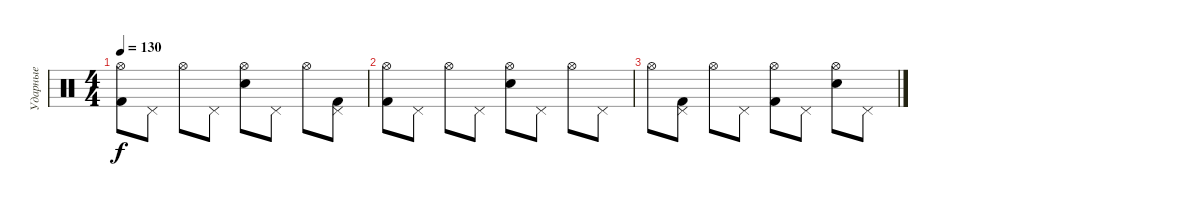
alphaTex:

\track ("Ударные" "Ударные") {instrument percussion}
\staff
\articulation defaults
\ts (4 4)
\tempo 130
\clef neutral
\ks c
("Kick (hit) 2" "Hi-Hat (open)").8{dy f} "Pedal Hi-Hat (hit)".8 "Hi-Hat (open)".8 "Pedal Hi-Hat (hit)".8 ("Snare (hit) 2" "Hi-Hat (open)").8 "Pedal Hi-Hat (hit)".8 "Hi-Hat (open)".8 ("Kick (hit) 2" "Pedal Hi-Hat (hit)").8 |
("Kick (hit) 2" "Hi-Hat (open)").8 "Pedal Hi-Hat (hit)".8 "Hi-Hat (open)".8 "Pedal Hi-Hat (hit)".8 ("Snare (hit) 2" "Hi-Hat (open)").8 "Pedal Hi-Hat (hit)".8 "Hi-Hat (open)".8 "Pedal Hi-Hat (hit)".8 |
"Hi-Hat (open)".8 ("Kick (hit) 2" "Pedal Hi-Hat (hit)").8 "Hi-Hat (open)".8 "Pedal Hi-Hat (hit)".8 ("Kick (hit) 2" "Hi-Hat (open)").8 "Pedal Hi-Hat (hit)".8 ("Snare (hit) 2" "Hi-Hat (open)").8 "Pedal Hi-Hat (hit)".8
